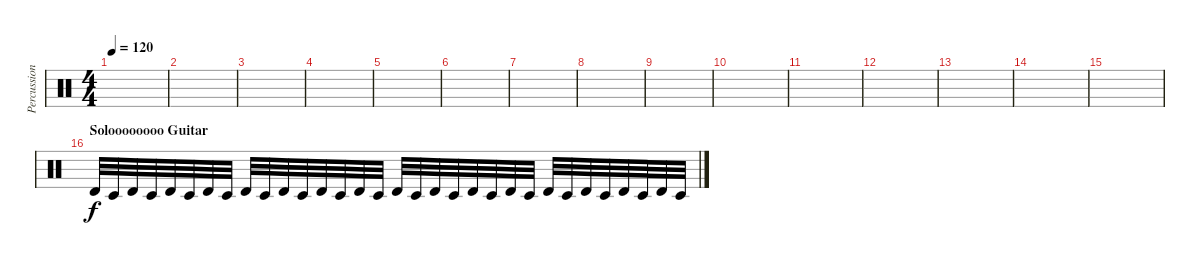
\track ("Percussion" "Percussion") {instrument percussion}
\staff {score}
\articulation defaults
\ts (4 4)
\tempo 120
\clef neutral
\ks c
|
|
|
|
|
|
|
|
|
|
|
|
|
|
|
\section ("" "Soloooooooo Guitar")
"Timbale high (hit)".32 "Timbale low (hit)".32 "Timbale high (hit)".32 "Timbale low (hit)".32 "Timbale high (hit)".32 "Timbale low (hit)".32 "Timbale high (hit)".32 "Timbale low (hit)".32 "Timbale high (hit)".32 "Timbale low (hit)".32 "Timbale high (hit)".32 "Timbale low (hit)".32 "Timbale high (hit)".32 "Timbale low (hit)".32 "Timbale high (hit)".32 "Timbale low (hit)".32 "Timbale high (hit)".32 "Timbale low (hit)".32 "Timbale high (hit)".32 "Timbale low (hit)".32 "Timbale high (hit)".32 "Timbale low (hit)".32 "Timbale high (hit)".32 "Timbale low (hit)".32 "Timbale high (hit)".32 "Timbale low (hit)".32 "Timbale high (hit)".32 "Timbale low (hit)".32 "Timbale high (hit)".32 "Timbale low (hit)".32 "Timbale high (hit)".32 "Timbale low (hit)".32
